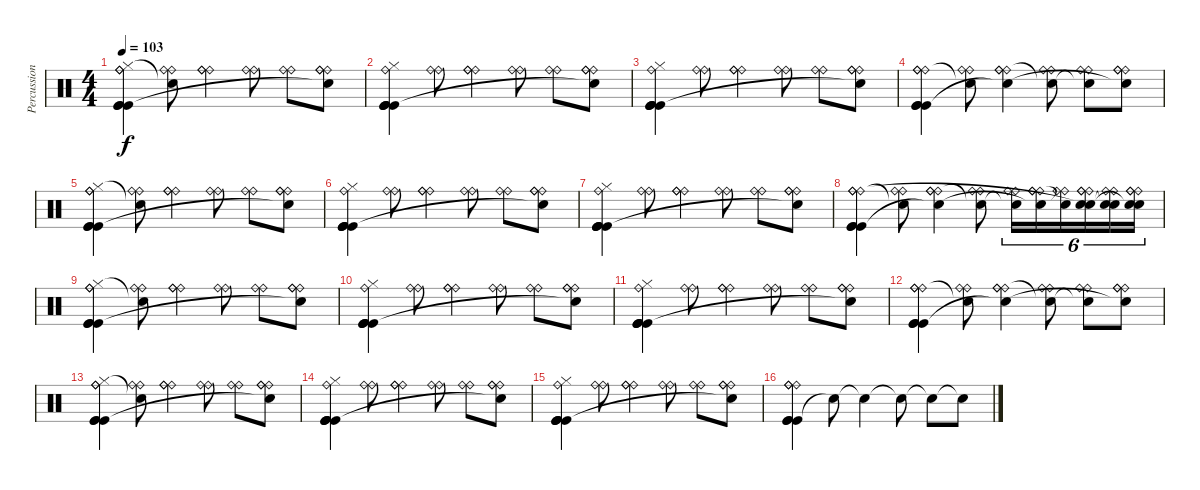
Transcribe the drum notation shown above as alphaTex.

\track ("Percussion" "Percussion") {instrument percussion}
\staff {score}
\articulation defaults
\ts (4 4)
\tempo 103
\clef neutral
\ks c
("Kick (hit)" "Ride (bell)" "Hi-Hat (closed)" "Kick (hit)" "Ride (bell)" "Kick (hit)").4{dy f} ("Ride (bell)" "Ride (bell)" "Snare (hit)"{t}).8 ("Ride (bell)" "Ride (bell)" "Ride (bell)").4 ("Ride (bell)" "Ride (bell)").8 ("Ride (bell)" "Ride (bell)").8 ("Ride (bell)" "Ride (bell)" "Ride (bell)" "Snare (hit)"{t}).8 |
("Kick (hit)" "Ride (bell)" "Hi-Hat (closed)" "Kick (hit)" "Kick (hit)" "Kick (hit)").4 ("Ride (bell)" "Ride (bell)").8 ("Ride (bell)" "Ride (bell)" "Ride (bell)").4 ("Ride (bell)" "Ride (bell)").8 ("Ride (bell)" "Ride (bell)").8 ("Ride (bell)" "Ride (bell)" "Ride (bell)" "Snare (hit)"{t}).8 |
("Kick (hit)" "Ride (bell)" "Hi-Hat (closed)" "Kick (hit)" "Kick (hit)" "Kick (hit)").4 ("Ride (bell)" "Ride (bell)").8 ("Ride (bell)" "Ride (bell)" "Ride (bell)").4 ("Ride (bell)" "Ride (bell)").8 ("Ride (bell)" "Ride (bell)").8 ("Ride (bell)" "Ride (bell)" "Ride (bell)" "Snare (hit)"{t}).8 |
("Kick (hit)" "Ride (bell)" "Ride (bell)" "Kick (hit)" "Ride (bell)" "Kick (hit)").4 ("Ride (bell)" "Ride (bell)" "Snare (hit)"{t}).8 ("Ride (bell)" "Ride (bell)" "Ride (bell)" "Snare (hit)"{t}).4 ("Ride (bell)" "Ride (bell)" "Snare (hit)"{t}).8 ("Ride (bell)" "Ride (bell)" "Snare (hit)"{t}).8 ("Ride (bell)" "Ride (bell)" "Ride (bell)" "Snare (hit)"{t}).8 |
("Kick (hit)" "Ride (bell)" "Hi-Hat (closed)" "Kick (hit)" "Ride (bell)" "Kick (hit)").4 ("Ride (bell)" "Ride (bell)" "Snare (hit)"{t}).8 ("Ride (bell)" "Ride (bell)" "Ride (bell)").4 ("Ride (bell)" "Ride (bell)").8 ("Ride (bell)" "Ride (bell)").8 ("Ride (bell)" "Ride (bell)" "Ride (bell)" "Snare (hit)"{t}).8 |
("Kick (hit)" "Ride (bell)" "Hi-Hat (closed)" "Kick (hit)" "Kick (hit)" "Kick (hit)").4 ("Ride (bell)" "Ride (bell)").8 ("Ride (bell)" "Ride (bell)" "Ride (bell)").4 ("Ride (bell)" "Ride (bell)").8 ("Ride (bell)" "Ride (bell)").8 ("Ride (bell)" "Ride (bell)" "Ride (bell)" "Snare (hit)"{t}).8 |
("Kick (hit)" "Ride (bell)" "Hi-Hat (closed)" "Kick (hit)" "Kick (hit)" "Kick (hit)").4 ("Ride (bell)" "Ride (bell)").8 ("Ride (bell)" "Ride (bell)" "Ride (bell)").4 ("Ride (bell)" "Ride (bell)").8 ("Ride (bell)" "Ride (bell)").8 ("Ride (bell)" "Ride (bell)" "Ride (bell)" "Snare (hit)"{t}).8 |
("Kick (hit)" "Ride (bell)" "Ride (bell)" "Kick (hit)" "Ride (bell)" "Kick (hit)").4 ("Ride (bell)" "Ride (bell)" "Snare (hit)"{t}).8 ("Ride (bell)" "Ride (bell)" "Ride (bell)" "Snare (hit)"{t}).4 ("Ride (bell)" "Ride (bell)" "Snare (hit)"{t}).8 ("Ride (bell)" "Ride (bell)" "Snare (hit)"{t}).16{tu (6 4)} ("Ride (bell)" "Ride (bell)" "Ride (bell)" "Snare (hit)"{t}).16{tu (6 4)} ("Ride (bell)" "Ride (bell)" "Snare (hit)"{t}).16{tu (6 4)} ("Ride (bell)" "Ride (bell)" "Ride (bell)" "Snare (hit) 2" "Snare (hit)"{t}).16{tu (6 4)} ("Ride (bell)" "Ride (bell)" "Snare (hit) 2" "Snare (hit)"{t}).16{tu (6 4)} ("Ride (bell)" "Ride (bell)" "Ride (bell)" "Snare (hit) 2" "Snare (hit)"{t}).16{tu (6 4)} |
("Kick (hit)" "Ride (bell)" "Hi-Hat (closed)" "Kick (hit)" "Ride (bell)" "Kick (hit)").4 ("Ride (bell)" "Ride (bell)" "Snare (hit)"{t}).8 ("Ride (bell)" "Ride (bell)" "Ride (bell)").4 ("Ride (bell)" "Ride (bell)").8 ("Ride (bell)" "Ride (bell)").8 ("Ride (bell)" "Ride (bell)" "Ride (bell)" "Snare (hit)"{t}).8 |
("Kick (hit)" "Ride (bell)" "Hi-Hat (closed)" "Kick (hit)" "Kick (hit)" "Kick (hit)").4 ("Ride (bell)" "Ride (bell)").8 ("Ride (bell)" "Ride (bell)" "Ride (bell)").4 ("Ride (bell)" "Ride (bell)").8 ("Ride (bell)" "Ride (bell)").8 ("Ride (bell)" "Ride (bell)" "Ride (bell)" "Snare (hit)"{t}).8 |
("Kick (hit)" "Ride (bell)" "Hi-Hat (closed)" "Kick (hit)" "Kick (hit)" "Kick (hit)").4 ("Ride (bell)" "Ride (bell)").8 ("Ride (bell)" "Ride (bell)" "Ride (bell)").4 ("Ride (bell)" "Ride (bell)").8 ("Ride (bell)" "Ride (bell)").8 ("Ride (bell)" "Ride (bell)" "Ride (bell)" "Snare (hit)"{t}).8 |
("Kick (hit)" "Ride (bell)" "Ride (bell)" "Kick (hit)" "Ride (bell)" "Kick (hit)").4 ("Ride (bell)" "Ride (bell)" "Snare (hit)"{t}).8 ("Ride (bell)" "Ride (bell)" "Ride (bell)" "Snare (hit)"{t}).4 ("Ride (bell)" "Ride (bell)" "Snare (hit)"{t}).8 ("Ride (bell)" "Ride (bell)" "Snare (hit)"{t}).8 ("Ride (bell)" "Ride (bell)" "Ride (bell)" "Snare (hit)"{t}).8 |
("Kick (hit)" "Ride (bell)" "Hi-Hat (closed)" "Kick (hit)" "Ride (bell)" "Kick (hit)").4 ("Ride (bell)" "Ride (bell)" "Snare (hit)"{t}).8 ("Ride (bell)" "Ride (bell)" "Ride (bell)").4 ("Ride (bell)" "Ride (bell)").8 ("Ride (bell)" "Ride (bell)").8 ("Ride (bell)" "Ride (bell)" "Ride (bell)" "Snare (hit)"{t}).8 |
("Kick (hit)" "Ride (bell)" "Hi-Hat (closed)" "Kick (hit)" "Kick (hit)" "Kick (hit)").4 ("Ride (bell)" "Ride (bell)").8 ("Ride (bell)" "Ride (bell)" "Ride (bell)").4 ("Ride (bell)" "Ride (bell)").8 ("Ride (bell)" "Ride (bell)").8 ("Ride (bell)" "Ride (bell)" "Ride (bell)" "Snare (hit)"{t}).8 |
("Kick (hit)" "Ride (bell)" "Hi-Hat (closed)" "Kick (hit)" "Kick (hit)" "Kick (hit)").4 ("Ride (bell)" "Ride (bell)").8 ("Ride (bell)" "Ride (bell)" "Ride (bell)").4 ("Ride (bell)" "Ride (bell)").8 ("Ride (bell)" "Ride (bell)").8 ("Ride (bell)" "Ride (bell)" "Ride (bell)" "Snare (hit)"{t}).8 |
("Kick (hit)" "Ride (bell)" "Ride (bell)" "Kick (hit)" "Ride (bell)" "Kick (hit)").4 "Snare (hit)"{t}.8 "Snare (hit)"{t}.4 "Snare (hit)"{t}.8 "Snare (hit)"{t}.8 "Snare (hit)"{t}.8
